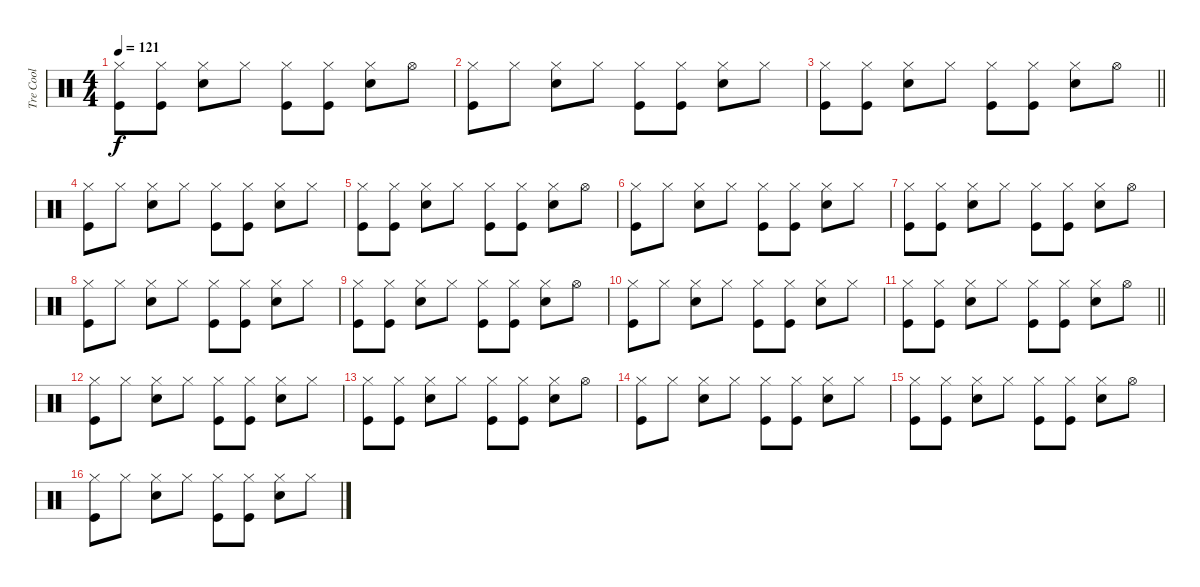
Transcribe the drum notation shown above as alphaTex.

\track ("Tre Cool" "Tre Cool") {instrument percussion}
\staff {score}
\articulation defaults
\ts (4 4)
\tempo 121
\clef neutral
\ks c
("Hi-Hat (closed)" "Kick (hit)").8{dy f} ("Hi-Hat (closed)" "Kick (hit)").8 ("Hi-Hat (closed)" "Snare (hit) 2").8 "Hi-Hat (closed)".8 ("Hi-Hat (closed)" "Kick (hit)").8 ("Hi-Hat (closed)" "Kick (hit)").8 ("Hi-Hat (closed)" "Snare (hit) 2").8 "Hi-Hat (open)".8 |
("Hi-Hat (closed)" "Kick (hit)").8 "Hi-Hat (closed)".8 ("Hi-Hat (closed)" "Snare (hit) 2").8 "Hi-Hat (closed)".8 ("Hi-Hat (closed)" "Kick (hit)").8 ("Hi-Hat (closed)" "Kick (hit)").8 ("Hi-Hat (closed)" "Snare (hit) 2").8 "Hi-Hat (closed)".8 |
\barLineRight lightlight
("Hi-Hat (closed)" "Kick (hit)").8 ("Hi-Hat (closed)" "Kick (hit)").8 ("Hi-Hat (closed)" "Snare (hit) 2").8 "Hi-Hat (closed)".8 ("Hi-Hat (closed)" "Kick (hit)").8 ("Hi-Hat (closed)" "Kick (hit)").8 ("Hi-Hat (closed)" "Snare (hit) 2").8 "Hi-Hat (open)".8 |
("Hi-Hat (closed)" "Kick (hit)").8 "Hi-Hat (closed)".8 ("Hi-Hat (closed)" "Snare (hit) 2").8 "Hi-Hat (closed)".8 ("Hi-Hat (closed)" "Kick (hit)").8 ("Hi-Hat (closed)" "Kick (hit)").8 ("Hi-Hat (closed)" "Snare (hit) 2").8 "Hi-Hat (closed)".8 |
("Hi-Hat (closed)" "Kick (hit)").8 ("Hi-Hat (closed)" "Kick (hit)").8 ("Hi-Hat (closed)" "Snare (hit) 2").8 "Hi-Hat (closed)".8 ("Hi-Hat (closed)" "Kick (hit)").8 ("Hi-Hat (closed)" "Kick (hit)").8 ("Hi-Hat (closed)" "Snare (hit) 2").8 "Hi-Hat (open)".8 |
("Hi-Hat (closed)" "Kick (hit)").8 "Hi-Hat (closed)".8 ("Hi-Hat (closed)" "Snare (hit) 2").8 "Hi-Hat (closed)".8 ("Hi-Hat (closed)" "Kick (hit)").8 ("Hi-Hat (closed)" "Kick (hit)").8 ("Hi-Hat (closed)" "Snare (hit) 2").8 "Hi-Hat (closed)".8 |
("Hi-Hat (closed)" "Kick (hit)").8 ("Hi-Hat (closed)" "Kick (hit)").8 ("Hi-Hat (closed)" "Snare (hit) 2").8 "Hi-Hat (closed)".8 ("Hi-Hat (closed)" "Kick (hit)").8 ("Hi-Hat (closed)" "Kick (hit)").8 ("Hi-Hat (closed)" "Snare (hit) 2").8 "Hi-Hat (open)".8 |
("Hi-Hat (closed)" "Kick (hit)").8 "Hi-Hat (closed)".8 ("Hi-Hat (closed)" "Snare (hit) 2").8 "Hi-Hat (closed)".8 ("Hi-Hat (closed)" "Kick (hit)").8 ("Hi-Hat (closed)" "Kick (hit)").8 ("Hi-Hat (closed)" "Snare (hit) 2").8 "Hi-Hat (closed)".8 |
("Hi-Hat (closed)" "Kick (hit)").8 ("Hi-Hat (closed)" "Kick (hit)").8 ("Hi-Hat (closed)" "Snare (hit) 2").8 "Hi-Hat (closed)".8 ("Hi-Hat (closed)" "Kick (hit)").8 ("Hi-Hat (closed)" "Kick (hit)").8 ("Hi-Hat (closed)" "Snare (hit) 2").8 "Hi-Hat (open)".8 |
("Hi-Hat (closed)" "Kick (hit)").8 "Hi-Hat (closed)".8 ("Hi-Hat (closed)" "Snare (hit) 2").8 "Hi-Hat (closed)".8 ("Hi-Hat (closed)" "Kick (hit)").8 ("Hi-Hat (closed)" "Kick (hit)").8 ("Hi-Hat (closed)" "Snare (hit) 2").8 "Hi-Hat (closed)".8 |
\barLineRight lightlight
("Hi-Hat (closed)" "Kick (hit)").8 ("Hi-Hat (closed)" "Kick (hit)").8 ("Hi-Hat (closed)" "Snare (hit) 2").8 "Hi-Hat (closed)".8 ("Hi-Hat (closed)" "Kick (hit)").8 ("Hi-Hat (closed)" "Kick (hit)").8 ("Hi-Hat (closed)" "Snare (hit) 2").8 "Hi-Hat (open)".8 |
("Hi-Hat (closed)" "Kick (hit)").8 "Hi-Hat (closed)".8 ("Hi-Hat (closed)" "Snare (hit) 2").8 "Hi-Hat (closed)".8 ("Hi-Hat (closed)" "Kick (hit)").8 ("Hi-Hat (closed)" "Kick (hit)").8 ("Hi-Hat (closed)" "Snare (hit) 2").8 "Hi-Hat (closed)".8 |
("Hi-Hat (closed)" "Kick (hit)").8 ("Hi-Hat (closed)" "Kick (hit)").8 ("Hi-Hat (closed)" "Snare (hit) 2").8 "Hi-Hat (closed)".8 ("Hi-Hat (closed)" "Kick (hit)").8 ("Hi-Hat (closed)" "Kick (hit)").8 ("Hi-Hat (closed)" "Snare (hit) 2").8 "Hi-Hat (open)".8 |
("Hi-Hat (closed)" "Kick (hit)").8 "Hi-Hat (closed)".8 ("Hi-Hat (closed)" "Snare (hit) 2").8 "Hi-Hat (closed)".8 ("Hi-Hat (closed)" "Kick (hit)").8 ("Hi-Hat (closed)" "Kick (hit)").8 ("Hi-Hat (closed)" "Snare (hit) 2").8 "Hi-Hat (closed)".8 |
("Hi-Hat (closed)" "Kick (hit)").8 ("Hi-Hat (closed)" "Kick (hit)").8 ("Hi-Hat (closed)" "Snare (hit) 2").8 "Hi-Hat (closed)".8 ("Hi-Hat (closed)" "Kick (hit)").8 ("Hi-Hat (closed)" "Kick (hit)").8 ("Hi-Hat (closed)" "Snare (hit) 2").8 "Hi-Hat (open)".8 |
("Hi-Hat (closed)" "Kick (hit)").8 "Hi-Hat (closed)".8 ("Hi-Hat (closed)" "Snare (hit) 2").8 "Hi-Hat (closed)".8 ("Hi-Hat (closed)" "Kick (hit)").8 ("Hi-Hat (closed)" "Kick (hit)").8 ("Hi-Hat (closed)" "Snare (hit) 2").8 "Hi-Hat (closed)".8
